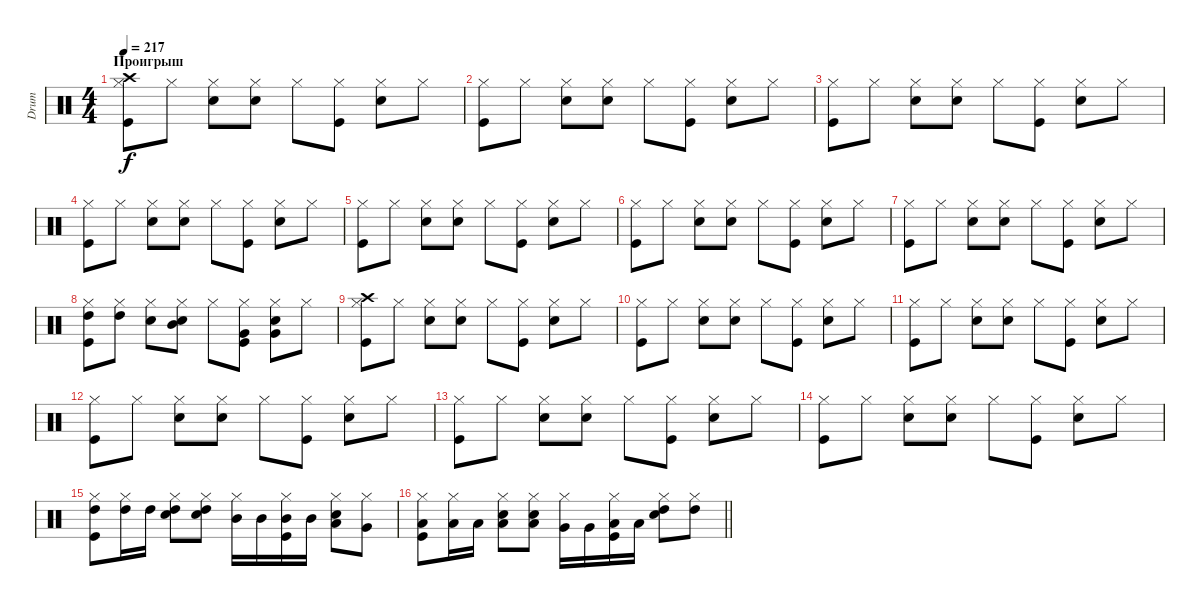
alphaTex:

\track ("Drum" "Drum") {instrument percussion}
\staff {score}
\articulation defaults
\ts (4 4)
\section ("" "Проигрыш")
\tempo 217
\clef neutral
\ks c
("Kick (hit)" "Hi-Hat (closed)" "Crash high (hit)").8{dy f} "Hi-Hat (closed)".8 ("Snare (hit) 2" "Hi-Hat (closed)").8 ("Snare (hit) 2" "Hi-Hat (closed)").8 "Hi-Hat (closed)".8 ("Kick (hit)" "Hi-Hat (closed)").8 ("Snare (hit) 2" "Hi-Hat (closed)").8 "Hi-Hat (closed)".8 |
("Kick (hit)" "Hi-Hat (closed)").8 "Hi-Hat (closed)".8 ("Snare (hit) 2" "Hi-Hat (closed)").8 ("Snare (hit) 2" "Hi-Hat (closed)").8 "Hi-Hat (closed)".8 ("Kick (hit)" "Hi-Hat (closed)").8 ("Snare (hit) 2" "Hi-Hat (closed)").8 "Hi-Hat (closed)".8 |
("Kick (hit)" "Hi-Hat (closed)").8 "Hi-Hat (closed)".8 ("Snare (hit) 2" "Hi-Hat (closed)").8 ("Snare (hit) 2" "Hi-Hat (closed)").8 "Hi-Hat (closed)".8 ("Kick (hit)" "Hi-Hat (closed)").8 ("Snare (hit) 2" "Hi-Hat (closed)").8 "Hi-Hat (closed)".8 |
("Kick (hit)" "Hi-Hat (closed)").8 "Hi-Hat (closed)".8 ("Snare (hit) 2" "Hi-Hat (closed)").8 ("Snare (hit) 2" "Hi-Hat (closed)").8 "Hi-Hat (closed)".8 ("Kick (hit)" "Hi-Hat (closed)").8 ("Snare (hit) 2" "Hi-Hat (closed)").8 "Hi-Hat (closed)".8 |
("Kick (hit)" "Hi-Hat (closed)").8 "Hi-Hat (closed)".8 ("Snare (hit) 2" "Hi-Hat (closed)").8 ("Snare (hit) 2" "Hi-Hat (closed)").8 "Hi-Hat (closed)".8 ("Kick (hit)" "Hi-Hat (closed)").8 ("Snare (hit) 2" "Hi-Hat (closed)").8 "Hi-Hat (closed)".8 |
("Kick (hit)" "Hi-Hat (closed)").8 "Hi-Hat (closed)".8 ("Snare (hit) 2" "Hi-Hat (closed)").8 ("Snare (hit) 2" "Hi-Hat (closed)").8 "Hi-Hat (closed)".8 ("Kick (hit)" "Hi-Hat (closed)").8 ("Snare (hit) 2" "Hi-Hat (closed)").8 "Hi-Hat (closed)".8 |
("Kick (hit)" "Hi-Hat (closed)").8 "Hi-Hat (closed)".8 ("Snare (hit) 2" "Hi-Hat (closed)").8 ("Snare (hit) 2" "Hi-Hat (closed)").8 "Hi-Hat (closed)".8 ("Kick (hit)" "Hi-Hat (closed)").8 ("Snare (hit) 2" "Hi-Hat (closed)").8 "Hi-Hat (closed)".8 |
("Kick (hit)" "Hi-Hat (closed)" "High Tom (hit)").8 ("Hi-Hat (closed)" "High Tom (hit)").8 ("Snare (hit) 2" "Hi-Hat (closed)").8 ("Snare (hit) 2" "Hi-Hat (closed)" "Mid Tom (hit)").8 "Hi-Hat (closed)".8 ("Kick (hit)" "Hi-Hat (closed)" "Very Low Tom (hit)").8 ("Snare (hit) 2" "Hi-Hat (closed)" "Very Low Tom (hit)").8 "Hi-Hat (closed)".8 |
("Kick (hit)" "Hi-Hat (closed)" "Crash high (hit)").8 "Hi-Hat (closed)".8 ("Snare (hit) 2" "Hi-Hat (closed)").8 ("Snare (hit) 2" "Hi-Hat (closed)").8 "Hi-Hat (closed)".8 ("Kick (hit)" "Hi-Hat (closed)").8 ("Snare (hit) 2" "Hi-Hat (closed)").8 "Hi-Hat (closed)".8 |
("Kick (hit)" "Hi-Hat (closed)").8 "Hi-Hat (closed)".8 ("Snare (hit) 2" "Hi-Hat (closed)").8 ("Snare (hit) 2" "Hi-Hat (closed)").8 "Hi-Hat (closed)".8 ("Kick (hit)" "Hi-Hat (closed)").8 ("Snare (hit) 2" "Hi-Hat (closed)").8 "Hi-Hat (closed)".8 |
("Kick (hit)" "Hi-Hat (closed)").8 "Hi-Hat (closed)".8 ("Snare (hit) 2" "Hi-Hat (closed)").8 ("Snare (hit) 2" "Hi-Hat (closed)").8 "Hi-Hat (closed)".8 ("Kick (hit)" "Hi-Hat (closed)").8 ("Snare (hit) 2" "Hi-Hat (closed)").8 "Hi-Hat (closed)".8 |
("Kick (hit)" "Hi-Hat (closed)").8 "Hi-Hat (closed)".8 ("Snare (hit) 2" "Hi-Hat (closed)").8 ("Snare (hit) 2" "Hi-Hat (closed)").8 "Hi-Hat (closed)".8 ("Kick (hit)" "Hi-Hat (closed)").8 ("Snare (hit) 2" "Hi-Hat (closed)").8 "Hi-Hat (closed)".8 |
("Kick (hit)" "Hi-Hat (closed)").8 "Hi-Hat (closed)".8 ("Snare (hit) 2" "Hi-Hat (closed)").8 ("Snare (hit) 2" "Hi-Hat (closed)").8 "Hi-Hat (closed)".8 ("Kick (hit)" "Hi-Hat (closed)").8 ("Snare (hit) 2" "Hi-Hat (closed)").8 "Hi-Hat (closed)".8 |
("Kick (hit)" "Hi-Hat (closed)").8 "Hi-Hat (closed)".8 ("Snare (hit) 2" "Hi-Hat (closed)").8 ("Snare (hit) 2" "Hi-Hat (closed)").8 "Hi-Hat (closed)".8 ("Kick (hit)" "Hi-Hat (closed)").8 ("Snare (hit) 2" "Hi-Hat (closed)").8 "Hi-Hat (closed)".8 |
("Kick (hit)" "Hi-Hat (closed)" "High Tom (hit)").8 ("Hi-Hat (closed)" "High Tom (hit)").16 "High Tom (hit)".16 ("Snare (hit) 2" "Hi-Hat (closed)" "High Tom (hit)").8 ("Snare (hit) 2" "Hi-Hat (closed)" "High Tom (hit)").8 ("Hi-Hat (closed)" "Mid Tom (hit)").16 "Mid Tom (hit)".16 ("Kick (hit)" "Hi-Hat (closed)" "Mid Tom (hit)").16 "Mid Tom (hit)".16 ("Snare (hit) 2" "Hi-Hat (closed)" "Low Tom (hit)").8 ("Hi-Hat (closed)" "Very Low Tom (hit)").8 |
\barLineRight lightlight
("Kick (hit)" "Hi-Hat (closed)" "Low Tom (hit)").8 ("Hi-Hat (closed)" "Low Tom (hit)").16 "Low Tom (hit)".16 ("Snare (hit) 2" "Hi-Hat (closed)" "Low Tom (hit)").8 ("Snare (hit) 2" "Hi-Hat (closed)" "Low Tom (hit)").8 ("Hi-Hat (closed)" "Very Low Tom (hit)").16 "Very Low Tom (hit)".16 ("Kick (hit)" "Hi-Hat (closed)" "Low Floor Tom (hit)").16 "Low Floor Tom (hit)".16 ("Snare (hit) 2" "Hi-Hat (closed)" "High Tom (hit)").8 ("Hi-Hat (closed)" "High Tom (hit)").8
